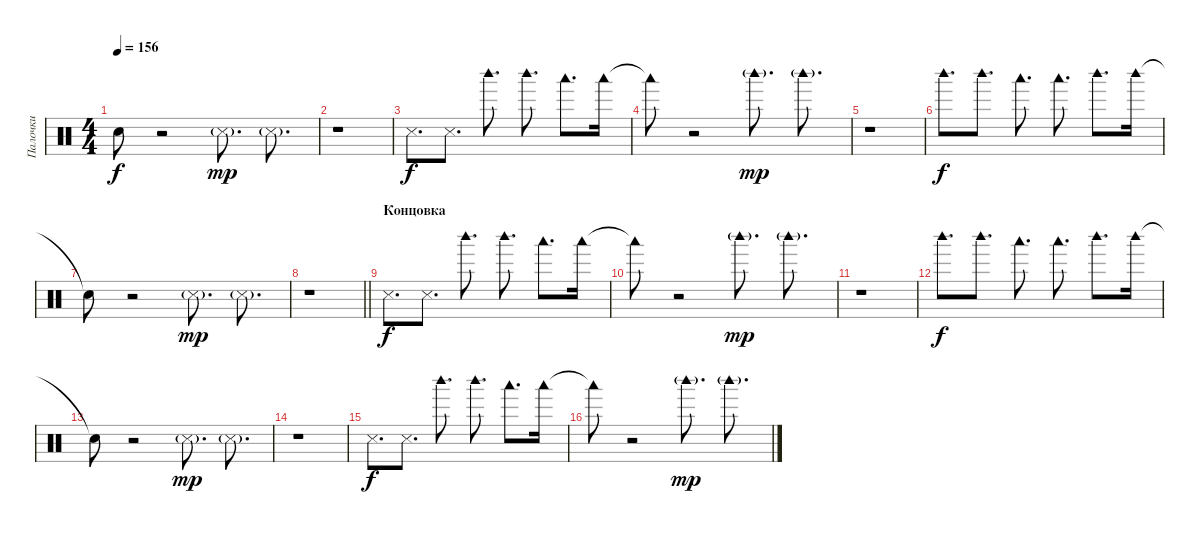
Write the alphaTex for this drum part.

\track ("Палочки" "Палочки") {instrument percussion}
\staff {score}
\articulation defaults
\ts (4 4)
\tempo 156
\clef neutral
\ks c "Snare (hit)"{t}.8{dy f}
r.2 "Metronome (hit)"{g}.8{d dy mp} "Metronome (hit)"{g}.8{d} |
r.1 |
"Metronome (hit)".8{d dy f} "Metronome (hit)".8{d} "Woodblock high (hit)".8{d} "Woodblock high (hit)".8{d} "Woodblock low (hit)".8{d} "Woodblock low (hit)".16 |
"Woodblock low (hit)"{t}.8 r.2 "Woodblock high (hit)"{g}.8{d dy mp} "Woodblock high (hit)"{g}.8{d} |
r.1 |
"Woodblock high (hit)".8{d dy f} "Woodblock high (hit)".8{d} "Woodblock low (hit)".8{d} "Woodblock low (hit)".8{d} "Woodblock high (hit)".8{d} "Woodblock high (hit)".16 |
"Snare (hit)"{t}.8 r.2 "Metronome (hit)"{g}.8{d dy mp} "Metronome (hit)"{g}.8{d} |
\barLineRight lightlight
r.1 |
\section ("" "Концовка")
"Metronome (hit)".8{d dy f} "Metronome (hit)".8{d} "Woodblock high (hit)".8{d} "Woodblock high (hit)".8{d} "Woodblock low (hit)".8{d} "Woodblock low (hit)".16 |
"Woodblock low (hit)"{t}.8 r.2 "Woodblock high (hit)"{g}.8{d dy mp} "Woodblock high (hit)"{g}.8{d} |
r.1 |
"Woodblock high (hit)".8{d dy f} "Woodblock high (hit)".8{d} "Woodblock low (hit)".8{d} "Woodblock low (hit)".8{d} "Woodblock high (hit)".8{d} "Woodblock high (hit)".16 |
"Snare (hit)"{t}.8 r.2 "Metronome (hit)"{g}.8{d dy mp} "Metronome (hit)"{g}.8{d} |
r.1 |
"Metronome (hit)".8{d dy f} "Metronome (hit)".8{d} "Woodblock high (hit)".8{d} "Woodblock high (hit)".8{d} "Woodblock low (hit)".8{d} "Woodblock low (hit)".16 |
"Woodblock low (hit)"{t}.8 r.2 "Woodblock high (hit)"{g}.8{d dy mp} "Woodblock high (hit)"{g}.8{d}
